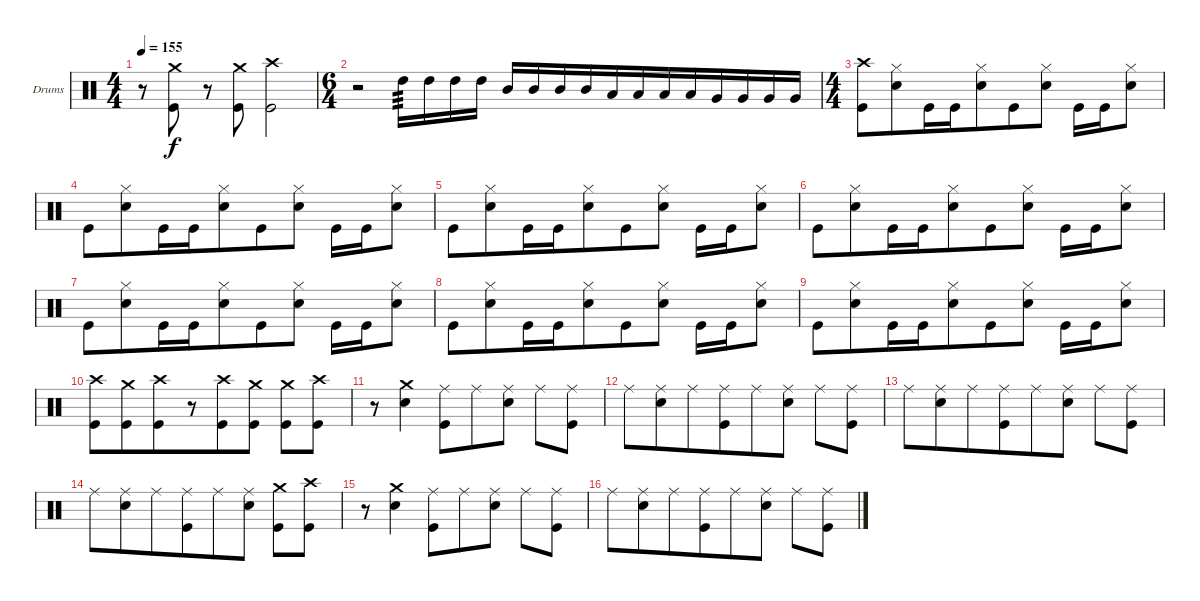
\bracketExtendMode groupsimilarinstruments
\firstSystemTrackNameOrientation horizontal
\otherSystemsTrackNameOrientation horizontal
\track ("Drumkit" "Drums") {instrument percussion}
\staff {score}
\articulation defaults
\ts (4 4)
\tempo 155
\clef neutral
\ks c
r.8{dy f} ("Crash medium (hit)" "Kick (hit)").8 r.8 ("Crash medium (hit)" "Kick (hit)").8 ("Crash high (hit)" "Kick (hit)").2 |
\ts (6 4)
\beaming (8 6 6)
r.2 "High Tom (hit)".16{tp 3} "High Tom (hit)".16 "High Tom (hit)".16 "High Tom (hit)".16 "Mid Tom (hit)".16 "Mid Tom (hit)".16 "Mid Tom (hit)".16 "Mid Tom (hit)".16 "Low Tom (hit)".16 "Low Tom (hit)".16 "Low Tom (hit)".16 "Low Tom (hit)".16 "Very Low Tom (hit)".16 "Very Low Tom (hit)".16 "Very Low Tom (hit)".16 "Very Low Tom (hit)".16 |
\ts (4 4)
\beaming (8 6 6)
("Crash high (hit)" "Kick (hit)").8 ("Hi-Hat (closed)" "Snare (hit) 2").8 "Kick (hit)".16 "Kick (hit)".16 ("Hi-Hat (closed)" "Snare (hit) 2").8 "Kick (hit)".8 ("Hi-Hat (closed)" "Snare (hit) 2").8 "Kick (hit)".16 "Kick (hit)".16 ("Hi-Hat (closed)" "Snare (hit) 2").8 |
"Kick (hit)".8 ("Hi-Hat (closed)" "Snare (hit) 2").8 "Kick (hit)".16 "Kick (hit)".16 ("Hi-Hat (closed)" "Snare (hit) 2").8 "Kick (hit)".8 ("Hi-Hat (closed)" "Snare (hit) 2").8 "Kick (hit)".16 "Kick (hit)".16 ("Hi-Hat (closed)" "Snare (hit) 2").8 |
"Kick (hit)".8 ("Hi-Hat (closed)" "Snare (hit) 2").8 "Kick (hit)".16 "Kick (hit)".16 ("Hi-Hat (closed)" "Snare (hit) 2").8 "Kick (hit)".8 ("Hi-Hat (closed)" "Snare (hit) 2").8 "Kick (hit)".16 "Kick (hit)".16 ("Hi-Hat (closed)" "Snare (hit) 2").8 |
"Kick (hit)".8 ("Hi-Hat (closed)" "Snare (hit) 2").8 "Kick (hit)".16 "Kick (hit)".16 ("Hi-Hat (closed)" "Snare (hit) 2").8 "Kick (hit)".8 ("Hi-Hat (closed)" "Snare (hit) 2").8 "Kick (hit)".16 "Kick (hit)".16 ("Hi-Hat (closed)" "Snare (hit) 2").8 |
"Kick (hit)".8 ("Hi-Hat (closed)" "Snare (hit) 2").8 "Kick (hit)".16 "Kick (hit)".16 ("Hi-Hat (closed)" "Snare (hit) 2").8 "Kick (hit)".8 ("Hi-Hat (closed)" "Snare (hit) 2").8 "Kick (hit)".16 "Kick (hit)".16 ("Hi-Hat (closed)" "Snare (hit) 2").8 |
"Kick (hit)".8 ("Hi-Hat (closed)" "Snare (hit) 2").8 "Kick (hit)".16 "Kick (hit)".16 ("Hi-Hat (closed)" "Snare (hit) 2").8 "Kick (hit)".8 ("Hi-Hat (closed)" "Snare (hit) 2").8 "Kick (hit)".16 "Kick (hit)".16 ("Hi-Hat (closed)" "Snare (hit) 2").8 |
"Kick (hit)".8 ("Hi-Hat (closed)" "Snare (hit) 2").8 "Kick (hit)".16 "Kick (hit)".16 ("Hi-Hat (closed)" "Snare (hit) 2").8 "Kick (hit)".8 ("Hi-Hat (closed)" "Snare (hit) 2").8 "Kick (hit)".16 "Kick (hit)".16 ("Hi-Hat (closed)" "Snare (hit) 2").8 |
("Crash high (hit)" "Kick (hit)").8 ("Crash medium (hit)" "Kick (hit)").8 ("Crash high (hit)" "Kick (hit)").8 r.8 ("Crash high (hit)" "Kick (hit)").8 ("Crash medium (hit)" "Kick (hit)").8 ("Crash medium (hit)" "Kick (hit)").8 ("Crash high (hit)" "Kick (hit)").8 |
r.8 ("Crash medium (hit)" "Snare (hit) 2").4 ("Ride (middle)" "Kick (hit)").8 "Ride (middle)".8 ("Ride (middle)" "Snare (hit) 2").8 "Ride (middle)".8 ("Ride (middle)" "Kick (hit)").8 |
"Ride (middle)".8 ("Ride (middle)" "Snare (hit) 2").8 "Ride (middle)".8 ("Ride (middle)" "Kick (hit)").8 "Ride (middle)".8 ("Ride (middle)" "Snare (hit) 2").8 "Ride (middle)".8 ("Ride (middle)" "Kick (hit)").8 |
"Ride (middle)".8 ("Ride (middle)" "Snare (hit) 2").8 "Ride (middle)".8 ("Ride (middle)" "Kick (hit)").8 "Ride (middle)".8 ("Ride (middle)" "Snare (hit) 2").8 "Ride (middle)".8 ("Ride (middle)" "Kick (hit)").8 |
"Ride (middle)".8 ("Ride (middle)" "Snare (hit) 2").8 "Ride (middle)".8 ("Ride (middle)" "Kick (hit)").8 "Ride (middle)".8 ("Ride (middle)" "Snare (hit) 2").8 ("Crash medium (hit)" "Kick (hit)").8 ("Crash high (hit)" "Kick (hit)").8 |
r.8 ("Crash medium (hit)" "Snare (hit) 2").4 ("Ride (middle)" "Kick (hit)").8 "Ride (middle)".8 ("Ride (middle)" "Snare (hit) 2").8 "Ride (middle)".8 ("Ride (middle)" "Kick (hit)").8 |
"Ride (middle)".8 ("Ride (middle)" "Snare (hit) 2").8 "Ride (middle)".8 ("Ride (middle)" "Kick (hit)").8 "Ride (middle)".8 ("Ride (middle)" "Snare (hit) 2").8 "Ride (middle)".8 ("Ride (middle)" "Kick (hit)").8
